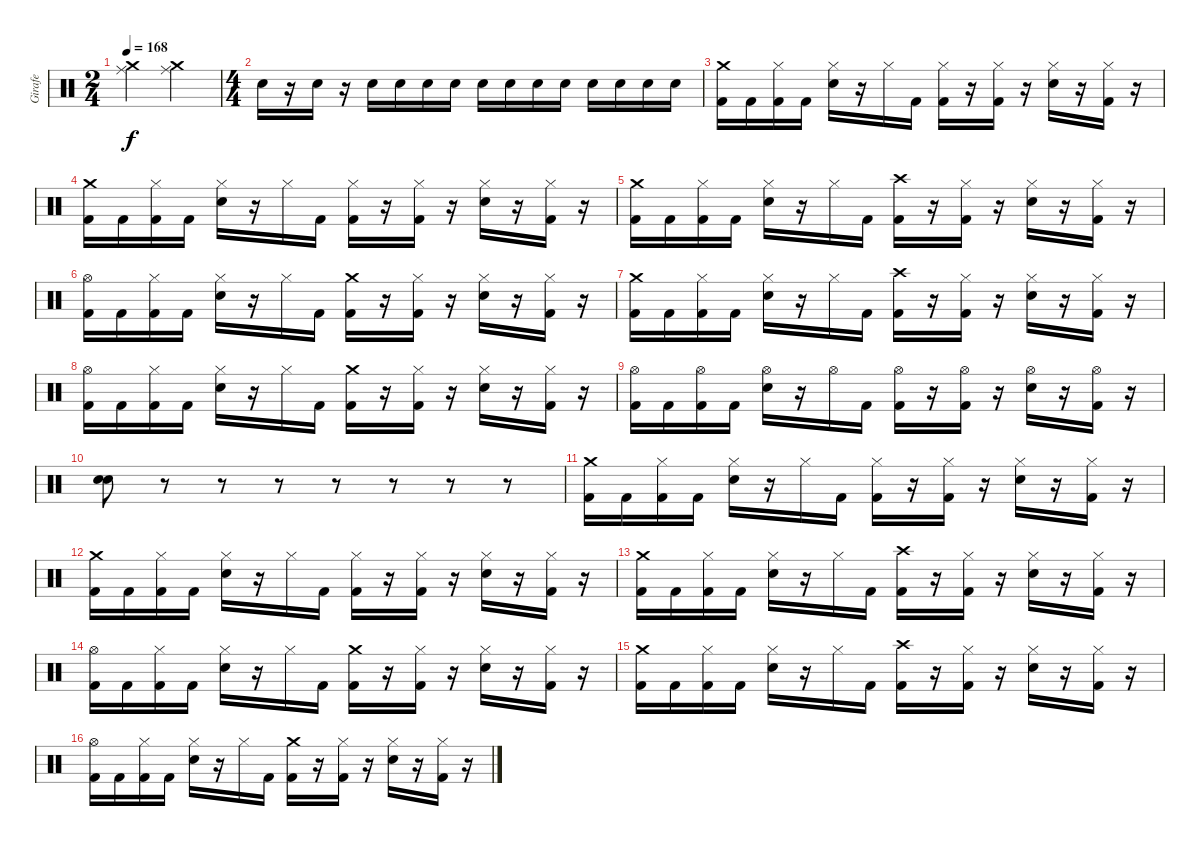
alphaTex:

\track ("Girafe" "Girafe") {instrument percussion}
\staff {score}
\articulation defaults
\ts (2 4)
\tempo 168
\clef neutral
\ks c
("Crash medium (hit)" "Ride (middle)").4{dy f} ("Crash medium (hit)" "Ride (middle)").4 |
\ts (4 4)
"Electric Snare (hit)".16 r.16 "Electric Snare (hit)".16 r.16 "Electric Snare (hit)".16 "Electric Snare (hit)".16 "Electric Snare (hit)".16 "Electric Snare (hit)".16 "Electric Snare (hit)".16 "Electric Snare (hit)".16 "Electric Snare (hit)".16 "Electric Snare (hit)".16 "Electric Snare (hit)".16 "Electric Snare (hit)".16 "Electric Snare (hit)".16 "Electric Snare (hit)".16 |
("Crash medium (hit)" "Kick (hit) 2").16 "Kick (hit) 2".16 ("Hi-Hat (closed)" "Kick (hit) 2").16 "Kick (hit) 2".16 ("Hi-Hat (closed)" "Electric Snare (hit)").16 r.16 "Hi-Hat (closed)".16 "Kick (hit) 2".16 ("Hi-Hat (closed)" "Kick (hit) 2").16 r.16 ("Hi-Hat (closed)" "Kick (hit) 2").16 r.16 ("Hi-Hat (closed)" "Electric Snare (hit)").16 r.16 ("Hi-Hat (closed)" "Kick (hit) 2").16 r.16 |
("Crash medium (hit)" "Kick (hit) 2").16 "Kick (hit) 2".16 ("Hi-Hat (closed)" "Kick (hit) 2").16 "Kick (hit) 2".16 ("Hi-Hat (closed)" "Electric Snare (hit)").16 r.16 "Hi-Hat (closed)".16 "Kick (hit) 2".16 ("Hi-Hat (closed)" "Kick (hit) 2").16 r.16 ("Hi-Hat (closed)" "Kick (hit) 2").16 r.16 ("Hi-Hat (closed)" "Electric Snare (hit)").16 r.16 ("Hi-Hat (closed)" "Kick (hit) 2").16 r.16 |
("Crash medium (hit)" "Kick (hit) 2").16 "Kick (hit) 2".16 ("Hi-Hat (closed)" "Kick (hit) 2").16 "Kick (hit) 2".16 ("Hi-Hat (closed)" "Electric Snare (hit)").16 r.16 "Hi-Hat (closed)".16 "Kick (hit) 2".16 ("Crash high (hit)" "Kick (hit) 2").16 r.16 ("Hi-Hat (closed)" "Kick (hit) 2").16 r.16 ("Hi-Hat (closed)" "Electric Snare (hit)").16 r.16 ("Hi-Hat (closed)" "Kick (hit) 2").16 r.16 |
("Hi-Hat (open)" "Kick (hit) 2").16 "Kick (hit) 2".16 ("Hi-Hat (closed)" "Kick (hit) 2").16 "Kick (hit) 2".16 ("Hi-Hat (closed)" "Electric Snare (hit)").16 r.16 "Hi-Hat (closed)".16 "Kick (hit) 2".16 ("Crash medium (hit)" "Kick (hit) 2").16 r.16 ("Hi-Hat (closed)" "Kick (hit) 2").16 r.16 ("Hi-Hat (closed)" "Electric Snare (hit)").16 r.16 ("Hi-Hat (closed)" "Kick (hit) 2").16 r.16 |
("Crash medium (hit)" "Kick (hit) 2").16 "Kick (hit) 2".16 ("Hi-Hat (closed)" "Kick (hit) 2").16 "Kick (hit) 2".16 ("Hi-Hat (closed)" "Electric Snare (hit)").16 r.16 "Hi-Hat (closed)".16 "Kick (hit) 2".16 ("Crash high (hit)" "Kick (hit) 2").16 r.16 ("Hi-Hat (closed)" "Kick (hit) 2").16 r.16 ("Hi-Hat (closed)" "Electric Snare (hit)").16 r.16 ("Hi-Hat (closed)" "Kick (hit) 2").16 r.16 |
("Hi-Hat (open)" "Kick (hit) 2").16 "Kick (hit) 2".16 ("Hi-Hat (closed)" "Kick (hit) 2").16 "Kick (hit) 2".16 ("Hi-Hat (closed)" "Electric Snare (hit)").16 r.16 "Hi-Hat (closed)".16 "Kick (hit) 2".16 ("Crash medium (hit)" "Kick (hit) 2").16 r.16 ("Hi-Hat (closed)" "Kick (hit) 2").16 r.16 ("Hi-Hat (closed)" "Electric Snare (hit)").16 r.16 ("Hi-Hat (closed)" "Kick (hit) 2").16 r.16 |
("Hi-Hat (open)" "Kick (hit) 2").16 "Kick (hit) 2".16 ("Hi-Hat (open)" "Kick (hit) 2").16 "Kick (hit) 2".16 ("Hi-Hat (open)" "Electric Snare (hit)").16 r.16 "Hi-Hat (open)".16 "Kick (hit) 2".16 ("Hi-Hat (open)" "Kick (hit) 2").16 r.16 ("Hi-Hat (open)" "Kick (hit) 2").16 r.16 ("Hi-Hat (open)" "Electric Snare (hit)").16 r.16 ("Hi-Hat (open)" "Kick (hit) 2").16 r.16 |
("Electric Snare (hit)" "Electric Snare (hit)").8{bd 60} r.8 r.8 r.8 r.8 r.8 r.8 r.8 |
("Crash medium (hit)" "Kick (hit) 2").16 "Kick (hit) 2".16 ("Hi-Hat (closed)" "Kick (hit) 2").16 "Kick (hit) 2".16 ("Hi-Hat (closed)" "Electric Snare (hit)").16 r.16 "Hi-Hat (closed)".16 "Kick (hit) 2".16 ("Hi-Hat (closed)" "Kick (hit) 2").16 r.16 ("Hi-Hat (closed)" "Kick (hit) 2").16 r.16 ("Hi-Hat (closed)" "Electric Snare (hit)").16 r.16 ("Hi-Hat (closed)" "Kick (hit) 2").16 r.16 |
("Crash medium (hit)" "Kick (hit) 2").16 "Kick (hit) 2".16 ("Hi-Hat (closed)" "Kick (hit) 2").16 "Kick (hit) 2".16 ("Hi-Hat (closed)" "Electric Snare (hit)").16 r.16 "Hi-Hat (closed)".16 "Kick (hit) 2".16 ("Hi-Hat (closed)" "Kick (hit) 2").16 r.16 ("Hi-Hat (closed)" "Kick (hit) 2").16 r.16 ("Hi-Hat (closed)" "Electric Snare (hit)").16 r.16 ("Hi-Hat (closed)" "Kick (hit) 2").16 r.16 |
("Crash medium (hit)" "Kick (hit) 2").16 "Kick (hit) 2".16 ("Hi-Hat (closed)" "Kick (hit) 2").16 "Kick (hit) 2".16 ("Hi-Hat (closed)" "Electric Snare (hit)").16 r.16 "Hi-Hat (closed)".16 "Kick (hit) 2".16 ("Crash high (hit)" "Kick (hit) 2").16 r.16 ("Hi-Hat (closed)" "Kick (hit) 2").16 r.16 ("Hi-Hat (closed)" "Electric Snare (hit)").16 r.16 ("Hi-Hat (closed)" "Kick (hit) 2").16 r.16 |
("Hi-Hat (open)" "Kick (hit) 2").16 "Kick (hit) 2".16 ("Hi-Hat (closed)" "Kick (hit) 2").16 "Kick (hit) 2".16 ("Hi-Hat (closed)" "Electric Snare (hit)").16 r.16 "Hi-Hat (closed)".16 "Kick (hit) 2".16 ("Crash medium (hit)" "Kick (hit) 2").16 r.16 ("Hi-Hat (closed)" "Kick (hit) 2").16 r.16 ("Hi-Hat (closed)" "Electric Snare (hit)").16 r.16 ("Hi-Hat (closed)" "Kick (hit) 2").16 r.16 |
("Crash medium (hit)" "Kick (hit) 2").16 "Kick (hit) 2".16 ("Hi-Hat (closed)" "Kick (hit) 2").16 "Kick (hit) 2".16 ("Hi-Hat (closed)" "Electric Snare (hit)").16 r.16 "Hi-Hat (closed)".16 "Kick (hit) 2".16 ("Crash high (hit)" "Kick (hit) 2").16 r.16 ("Hi-Hat (closed)" "Kick (hit) 2").16 r.16 ("Hi-Hat (closed)" "Electric Snare (hit)").16 r.16 ("Hi-Hat (closed)" "Kick (hit) 2").16 r.16 |
("Hi-Hat (open)" "Kick (hit) 2").16 "Kick (hit) 2".16 ("Hi-Hat (closed)" "Kick (hit) 2").16 "Kick (hit) 2".16 ("Hi-Hat (closed)" "Electric Snare (hit)").16 r.16 "Hi-Hat (closed)".16 "Kick (hit) 2".16 ("Crash medium (hit)" "Kick (hit) 2").16 r.16 ("Hi-Hat (closed)" "Kick (hit) 2").16 r.16 ("Hi-Hat (closed)" "Electric Snare (hit)").16 r.16 ("Hi-Hat (closed)" "Kick (hit) 2").16 r.16
